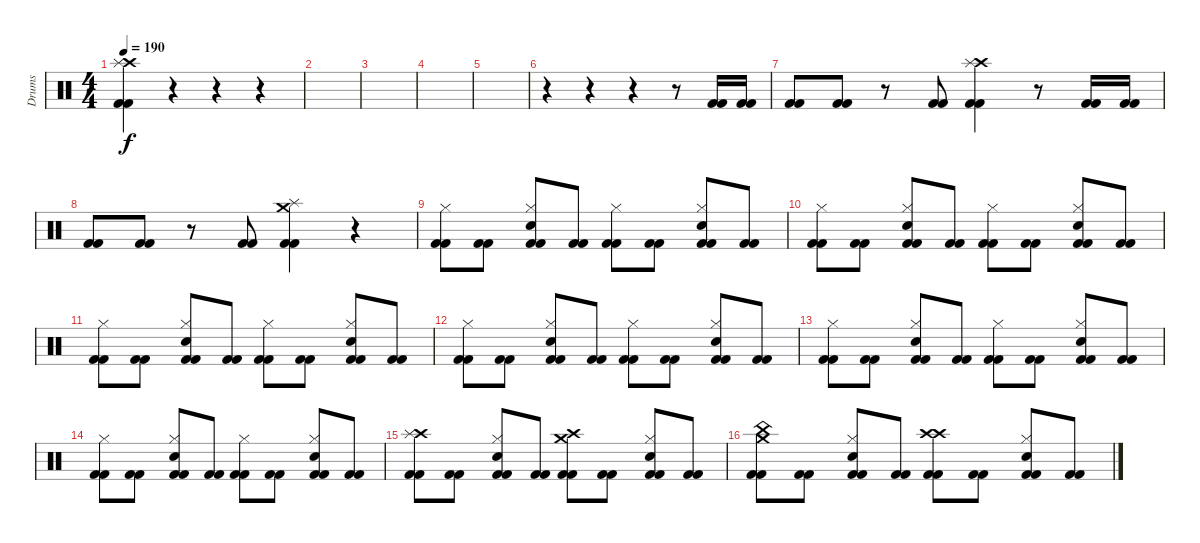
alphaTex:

\track ("Drums" "Drums") {instrument percussion}
\staff {score}
\articulation defaults
\ts (4 4)
\tempo 190
\clef neutral
\ks c
("Crash high (hit)" "Splash (hit)" "Kick (hit) 2" "Kick (hit) 2").4{dy f} r.4 r.4 r.4 |
|
|
|
|
r.4 r.4 r.4 r.8 ("Kick (hit) 2" "Kick (hit) 2").16 ("Kick (hit) 2" "Kick (hit) 2").16 |
("Kick (hit) 2" "Kick (hit) 2").8 ("Kick (hit) 2" "Kick (hit) 2").8 r.8 ("Kick (hit) 2" "Kick (hit) 2").8 ("Crash high (hit)" "Splash (hit)" "Kick (hit) 2" "Kick (hit) 2").4 r.8 ("Kick (hit) 2" "Kick (hit) 2").16 ("Kick (hit) 2" "Kick (hit) 2").16 |
("Kick (hit) 2" "Kick (hit) 2").8 ("Kick (hit) 2" "Kick (hit) 2").8 r.8 ("Kick (hit) 2" "Kick (hit) 2").8 ("Splash (hit)" "Crash medium (hit)" "Kick (hit) 2" "Kick (hit) 2").4 r.4 |
("Hi-Hat (closed)" "Kick (hit) 2" "Kick (hit) 2").8 ("Kick (hit) 2" "Kick (hit) 2").8 ("Hi-Hat (closed)" "Snare (hit) 2" "Kick (hit) 2" "Kick (hit) 2").8 ("Kick (hit) 2" "Kick (hit) 2").8 ("Hi-Hat (closed)" "Kick (hit) 2" "Kick (hit) 2").8 ("Kick (hit) 2" "Kick (hit) 2").8 ("Hi-Hat (closed)" "Snare (hit) 2" "Kick (hit) 2" "Kick (hit) 2").8 ("Kick (hit) 2" "Kick (hit) 2").8 |
("Hi-Hat (closed)" "Kick (hit) 2" "Kick (hit) 2").8 ("Kick (hit) 2" "Kick (hit) 2").8 ("Hi-Hat (closed)" "Snare (hit) 2" "Kick (hit) 2" "Kick (hit) 2").8 ("Kick (hit) 2" "Kick (hit) 2").8 ("Hi-Hat (closed)" "Kick (hit) 2" "Kick (hit) 2").8 ("Kick (hit) 2" "Kick (hit) 2").8 ("Hi-Hat (closed)" "Snare (hit) 2" "Kick (hit) 2" "Kick (hit) 2").8 ("Kick (hit) 2" "Kick (hit) 2").8 |
("Hi-Hat (closed)" "Kick (hit) 2" "Kick (hit) 2").8 ("Kick (hit) 2" "Kick (hit) 2").8 ("Hi-Hat (closed)" "Snare (hit) 2" "Kick (hit) 2" "Kick (hit) 2").8 ("Kick (hit) 2" "Kick (hit) 2").8 ("Hi-Hat (closed)" "Kick (hit) 2" "Kick (hit) 2").8 ("Kick (hit) 2" "Kick (hit) 2").8 ("Hi-Hat (closed)" "Snare (hit) 2" "Kick (hit) 2" "Kick (hit) 2").8 ("Kick (hit) 2" "Kick (hit) 2").8 |
("Hi-Hat (closed)" "Kick (hit) 2" "Kick (hit) 2").8 ("Kick (hit) 2" "Kick (hit) 2").8 ("Hi-Hat (closed)" "Snare (hit) 2" "Kick (hit) 2" "Kick (hit) 2").8 ("Kick (hit) 2" "Kick (hit) 2").8 ("Hi-Hat (closed)" "Kick (hit) 2" "Kick (hit) 2").8 ("Kick (hit) 2" "Kick (hit) 2").8 ("Hi-Hat (closed)" "Snare (hit) 2" "Kick (hit) 2" "Kick (hit) 2").8 ("Kick (hit) 2" "Kick (hit) 2").8 |
("Hi-Hat (closed)" "Kick (hit) 2" "Kick (hit) 2").8 ("Kick (hit) 2" "Kick (hit) 2").8 ("Hi-Hat (closed)" "Snare (hit) 2" "Kick (hit) 2" "Kick (hit) 2").8 ("Kick (hit) 2" "Kick (hit) 2").8 ("Hi-Hat (closed)" "Kick (hit) 2" "Kick (hit) 2").8 ("Kick (hit) 2" "Kick (hit) 2").8 ("Hi-Hat (closed)" "Snare (hit) 2" "Kick (hit) 2" "Kick (hit) 2").8 ("Kick (hit) 2" "Kick (hit) 2").8 |
("Hi-Hat (closed)" "Kick (hit) 2" "Kick (hit) 2").8 ("Kick (hit) 2" "Kick (hit) 2").8 ("Hi-Hat (closed)" "Snare (hit) 2" "Kick (hit) 2" "Kick (hit) 2").8 ("Kick (hit) 2" "Kick (hit) 2").8 ("Hi-Hat (closed)" "Kick (hit) 2" "Kick (hit) 2").8 ("Kick (hit) 2" "Kick (hit) 2").8 ("Hi-Hat (closed)" "Snare (hit) 2" "Kick (hit) 2" "Kick (hit) 2").8 ("Kick (hit) 2" "Kick (hit) 2").8 |
("Crash high (hit)" "Splash (hit)" "Kick (hit) 2" "Kick (hit) 2").8 ("Kick (hit) 2" "Kick (hit) 2").8 ("Hi-Hat (closed)" "Snare (hit) 2" "Kick (hit) 2" "Kick (hit) 2").8 ("Kick (hit) 2" "Kick (hit) 2").8 ("Crash high (hit)" "Crash medium (hit)" "Kick (hit) 2" "Kick (hit) 2").8 ("Kick (hit) 2" "Kick (hit) 2").8 ("Hi-Hat (closed)" "Snare (hit) 2" "Kick (hit) 2" "Kick (hit) 2").8 ("Kick (hit) 2" "Kick (hit) 2").8 |
("China (hit)" "Crash medium (hit)" "Kick (hit) 2" "Kick (hit) 2").8 ("Kick (hit) 2" "Kick (hit) 2").8 ("Hi-Hat (closed)" "Snare (hit) 2" "Kick (hit) 2" "Kick (hit) 2").8 ("Kick (hit) 2" "Kick (hit) 2").8 ("Crash high (hit)" "Crash high (hit)" "Kick (hit) 2" "Kick (hit) 2").8 ("Kick (hit) 2" "Kick (hit) 2").8 ("Hi-Hat (closed)" "Snare (hit) 2" "Kick (hit) 2" "Kick (hit) 2").8 ("Kick (hit) 2" "Kick (hit) 2").8
